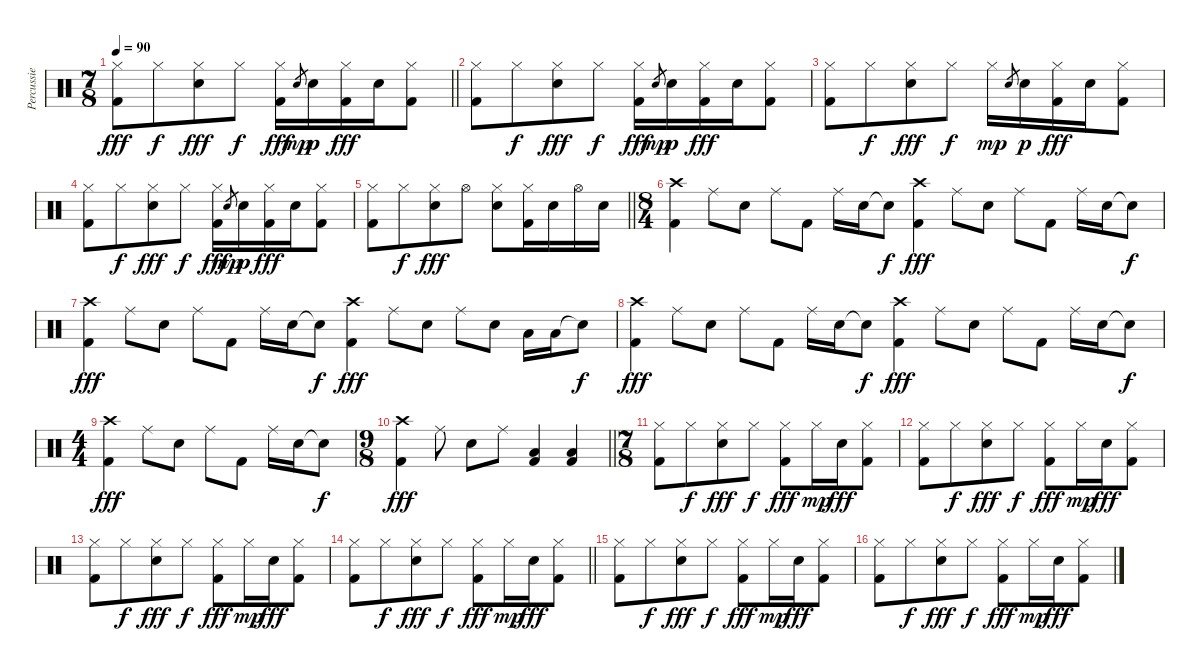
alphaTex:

\track ("Percussie" "Percussie") {instrument percussion}
\staff {score}
\articulation defaults
\ts (7 8)
\tempo 90
\clef neutral
\barLineRight lightlight
\ks c
("Hi-Hat (closed)" "Kick (hit) 2").8{dy fff} "Hi-Hat (closed)".8{dy f} ("Hi-Hat (closed)" "Snare (hit) 2").8{dy fff} "Hi-Hat (closed)".8{dy f} ("Hi-Hat (closed)" "Kick (hit) 2").16{dy fff} "Snare (hit) 2".8{gr dy mp} "Snare (hit) 2".16{dy p} ("Hi-Hat (closed)" "Kick (hit) 2").16{dy fff} "Snare (hit) 2".16 ("Hi-Hat (closed)" "Kick (hit) 2").8 |
("Hi-Hat (closed)" "Kick (hit) 2").8 "Hi-Hat (closed)".8{dy f} ("Hi-Hat (closed)" "Snare (hit) 2").8{dy fff} "Hi-Hat (closed)".8{dy f} ("Hi-Hat (closed)" "Kick (hit) 2").16{dy fff} "Snare (hit) 2".8{gr dy mp} "Snare (hit) 2".16{dy p} ("Hi-Hat (closed)" "Kick (hit) 2").16{dy fff} "Snare (hit) 2".16 ("Hi-Hat (closed)" "Kick (hit) 2").8 |
("Hi-Hat (closed)" "Kick (hit) 2").8 "Hi-Hat (closed)".8{dy f} ("Hi-Hat (closed)" "Snare (hit) 2").8{dy fff} "Hi-Hat (closed)".8{dy f} "Hi-Hat (closed)".16{dy mp} "Snare (hit) 2".8{gr} "Snare (hit) 2".16{dy p} ("Hi-Hat (closed)" "Kick (hit) 2").16{dy fff} "Snare (hit) 2".16 ("Hi-Hat (closed)" "Kick (hit) 2").8 |
("Hi-Hat (closed)" "Kick (hit) 2").8 "Hi-Hat (closed)".8{dy f} ("Hi-Hat (closed)" "Snare (hit) 2").8{dy fff} "Hi-Hat (closed)".8{dy f} ("Hi-Hat (closed)" "Kick (hit) 2").16{dy fff} "Snare (hit) 2".8{gr dy mp} "Snare (hit) 2".16{dy p} ("Hi-Hat (closed)" "Kick (hit) 2").16{dy fff} "Snare (hit) 2".16 ("Hi-Hat (closed)" "Kick (hit) 2").8 |
\barLineRight lightlight
("Hi-Hat (closed)" "Kick (hit) 2").8 "Hi-Hat (closed)".8{dy f} ("Hi-Hat (closed)" "Snare (hit) 2").8{dy fff} "Hi-Hat (open)".8 ("Hi-Hat (closed)" "Snare (hit) 2").8 ("Hi-Hat (closed)" "Kick (hit) 2").16 "Snare (hit) 2".16 "Hi-Hat (open)".16 "Snare (hit) 2".16 |
\ts (8 4)
("Crash high (hit)" "Kick (hit) 2").4 "Ride (middle)".8 "Snare (hit) 2".8 "Ride (middle)".8 "Kick (hit) 2".8 "Ride (middle)".16 "Snare (hit) 2".16 "Snare (hit)"{t}.8{dy f} ("Crash high (hit)" "Kick (hit) 2").4{dy fff} "Ride (middle)".8 "Snare (hit) 2".8 "Ride (middle)".8 "Kick (hit) 2".8 "Ride (middle)".16 "Snare (hit) 2".16 "Snare (hit)"{t}.8{dy f} |
("Crash high (hit)" "Kick (hit) 2").4{dy fff} "Ride (middle)".8 "Snare (hit) 2".8 "Ride (middle)".8 "Kick (hit) 2".8 "Ride (middle)".16 "Snare (hit) 2".16 "Snare (hit)"{t}.8{dy f} ("Crash high (hit)" "Kick (hit) 2").4{dy fff} "Ride (middle)".8 "Snare (hit) 2".8 "Ride (middle)".8 "Snare (hit) 2".8 "Low Floor Tom (hit)".16 "Low Floor Tom (hit)".16 "Snare (hit)"{t}.8{dy f} |
("Crash high (hit)" "Kick (hit) 2").4{dy fff} "Ride (middle)".8 "Snare (hit) 2".8 "Ride (middle)".8 "Kick (hit) 2".8 "Ride (middle)".16 "Snare (hit) 2".16 "Snare (hit)"{t}.8{dy f} ("Crash high (hit)" "Kick (hit) 2").4{dy fff} "Ride (middle)".8 "Snare (hit) 2".8 "Ride (middle)".8 "Kick (hit) 2".8 "Ride (middle)".16 "Snare (hit) 2".16 "Snare (hit)"{t}.8{dy f} |
\ts (4 4)
("Crash high (hit)" "Kick (hit) 2").4{dy fff} "Ride (middle)".8 "Snare (hit) 2".8 "Ride (middle)".8 "Kick (hit) 2".8 "Ride (middle)".16 "Snare (hit) 2".16 "Snare (hit)"{t}.8{dy f} |
\ts (9 8)
\barLineRight lightlight
("Crash high (hit)" "Kick (hit) 2").4{dy fff} "Ride (middle)".8 "Snare (hit) 2".8 "Ride (middle)".8 ("Low Floor Tom (hit)" "Kick (hit) 2").4 ("Low Floor Tom (hit)" "Kick (hit) 2").4 |
\ts (7 8)
("Hi-Hat (closed)" "Kick (hit) 2").8 "Hi-Hat (closed)".8{dy f} ("Hi-Hat (closed)" "Snare (hit) 2").8{dy fff} "Hi-Hat (closed)".8{dy f} ("Hi-Hat (closed)" "Kick (hit) 2").8{dy fff} "Hi-Hat (closed)".16{dy mp} "Snare (hit) 2".16{dy fff} ("Hi-Hat (closed)" "Kick (hit) 2").8 |
("Hi-Hat (closed)" "Kick (hit) 2").8 "Hi-Hat (closed)".8{dy f} ("Hi-Hat (closed)" "Snare (hit) 2").8{dy fff} "Hi-Hat (closed)".8{dy f} ("Hi-Hat (closed)" "Kick (hit) 2").8{dy fff} "Hi-Hat (closed)".16{dy mp} "Snare (hit) 2".16{dy fff} ("Hi-Hat (closed)" "Kick (hit) 2").8 |
("Hi-Hat (closed)" "Kick (hit) 2").8 "Hi-Hat (closed)".8{dy f} ("Hi-Hat (closed)" "Snare (hit) 2").8{dy fff} "Hi-Hat (closed)".8{dy f} ("Hi-Hat (closed)" "Kick (hit) 2").8{dy fff} "Hi-Hat (closed)".16{dy mp} "Snare (hit) 2".16{dy fff} ("Hi-Hat (closed)" "Kick (hit) 2").8 |
\barLineRight lightlight
("Hi-Hat (closed)" "Kick (hit) 2").8 "Hi-Hat (closed)".8{dy f} ("Hi-Hat (closed)" "Snare (hit) 2").8{dy fff} "Hi-Hat (closed)".8{dy f} ("Hi-Hat (closed)" "Kick (hit) 2").8{dy fff} "Hi-Hat (closed)".16{dy mp} "Snare (hit) 2".16{dy fff} ("Hi-Hat (closed)" "Kick (hit) 2").8 |
("Hi-Hat (closed)" "Kick (hit) 2").8 "Hi-Hat (closed)".8{dy f} ("Hi-Hat (closed)" "Snare (hit) 2").8{dy fff} "Hi-Hat (closed)".8{dy f} ("Hi-Hat (closed)" "Kick (hit) 2").8{dy fff} "Hi-Hat (closed)".16{dy mp} "Snare (hit) 2".16{dy fff} ("Hi-Hat (closed)" "Kick (hit) 2").8 |
("Hi-Hat (closed)" "Kick (hit) 2").8 "Hi-Hat (closed)".8{dy f} ("Hi-Hat (closed)" "Snare (hit) 2").8{dy fff} "Hi-Hat (closed)".8{dy f} ("Hi-Hat (closed)" "Kick (hit) 2").8{dy fff} "Hi-Hat (closed)".16{dy mp} "Snare (hit) 2".16{dy fff} ("Hi-Hat (closed)" "Kick (hit) 2").8
